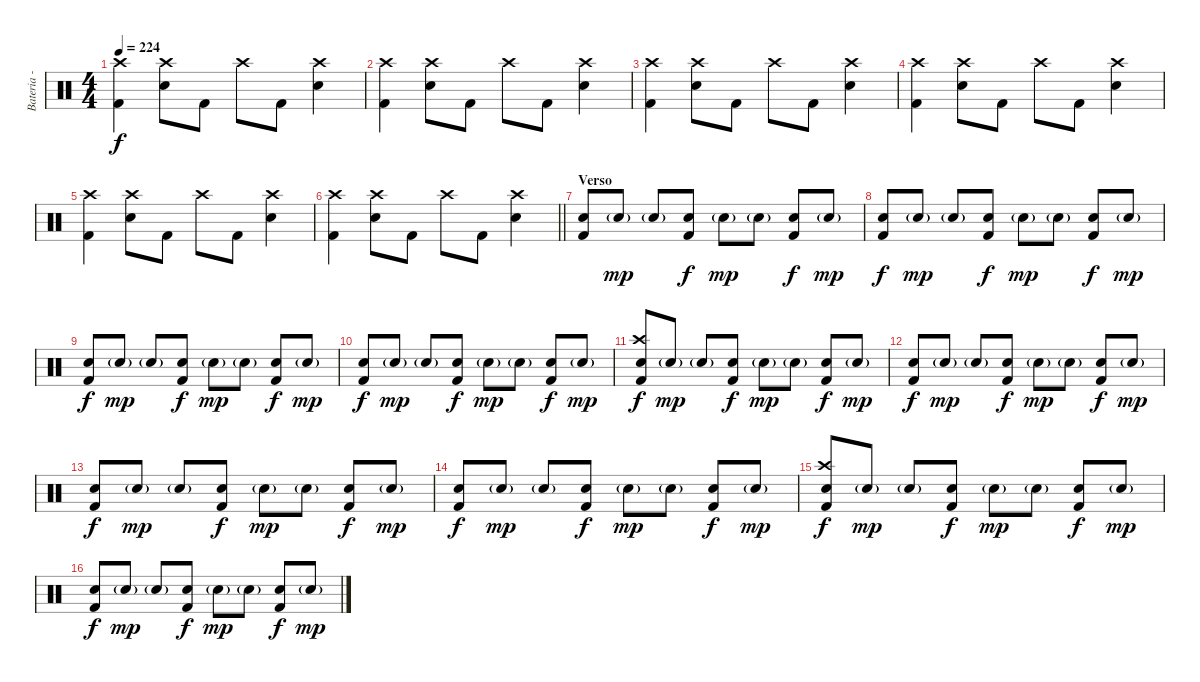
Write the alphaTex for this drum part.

\track ("Bateria - Larzon" "Bateria - ") {instrument percussion}
\staff {score}
\articulation defaults
\ts (4 4)
\tempo 224
\clef neutral
\ks c
("Kick (hit) 2" "Crash high (hit)").4{dy f} ("Electric Snare (hit)" "Crash high (hit)").8 "Kick (hit) 2".8 "Crash high (hit)".8 "Kick (hit) 2".8 ("Electric Snare (hit)" "Crash high (hit)").4 |
("Kick (hit) 2" "Crash high (hit)").4 ("Electric Snare (hit)" "Crash high (hit)").8 "Kick (hit) 2".8 "Crash high (hit)".8 "Kick (hit) 2".8 ("Electric Snare (hit)" "Crash high (hit)").4 |
("Kick (hit) 2" "Crash high (hit)").4 ("Electric Snare (hit)" "Crash high (hit)").8 "Kick (hit) 2".8 "Crash high (hit)".8 "Kick (hit) 2".8 ("Electric Snare (hit)" "Crash high (hit)").4 |
("Kick (hit) 2" "Crash high (hit)").4 ("Electric Snare (hit)" "Crash high (hit)").8 "Kick (hit) 2".8 "Crash high (hit)".8 "Kick (hit) 2".8 ("Electric Snare (hit)" "Crash high (hit)").4 |
("Kick (hit) 2" "Crash high (hit)").4 ("Electric Snare (hit)" "Crash high (hit)").8 "Kick (hit) 2".8 "Crash high (hit)".8 "Kick (hit) 2".8 ("Electric Snare (hit)" "Crash high (hit)").4 |
\barLineRight lightlight
("Kick (hit) 2" "Crash high (hit)").4 ("Electric Snare (hit)" "Crash high (hit)").8 "Kick (hit) 2".8 "Crash high (hit)".8 "Kick (hit) 2".8 ("Electric Snare (hit)" "Crash high (hit)").4 |
\section ("" "Verso")
("Electric Snare (hit)" "Kick (hit) 2").8 "Electric Snare (hit)"{g}.8{dy mp} "Electric Snare (hit)"{g}.8 ("Electric Snare (hit)" "Kick (hit) 2").8{dy f} "Electric Snare (hit)"{g}.8{dy mp} "Electric Snare (hit)"{g}.8 ("Electric Snare (hit)" "Kick (hit) 2").8{dy f} "Electric Snare (hit)"{g}.8{dy mp} |
("Electric Snare (hit)" "Kick (hit) 2").8{dy f} "Electric Snare (hit)"{g}.8{dy mp} "Electric Snare (hit)"{g}.8 ("Electric Snare (hit)" "Kick (hit) 2").8{dy f} "Electric Snare (hit)"{g}.8{dy mp} "Electric Snare (hit)"{g}.8 ("Electric Snare (hit)" "Kick (hit) 2").8{dy f} "Electric Snare (hit)"{g}.8{dy mp} |
("Electric Snare (hit)" "Kick (hit) 2").8{dy f} "Electric Snare (hit)"{g}.8{dy mp} "Electric Snare (hit)"{g}.8 ("Electric Snare (hit)" "Kick (hit) 2").8{dy f} "Electric Snare (hit)"{g}.8{dy mp} "Electric Snare (hit)"{g}.8 ("Electric Snare (hit)" "Kick (hit) 2").8{dy f} "Electric Snare (hit)"{g}.8{dy mp} |
("Electric Snare (hit)" "Kick (hit) 2").8{dy f} "Electric Snare (hit)"{g}.8{dy mp} "Electric Snare (hit)"{g}.8 ("Electric Snare (hit)" "Kick (hit) 2").8{dy f} "Electric Snare (hit)"{g}.8{dy mp} "Electric Snare (hit)"{g}.8 ("Electric Snare (hit)" "Kick (hit) 2").8{dy f} "Electric Snare (hit)"{g}.8{dy mp} |
("Electric Snare (hit)" "Kick (hit) 2" "Crash high (hit)").8{dy f} "Electric Snare (hit)"{g}.8{dy mp} "Electric Snare (hit)"{g}.8 ("Electric Snare (hit)" "Kick (hit) 2").8{dy f} "Electric Snare (hit)"{g}.8{dy mp} "Electric Snare (hit)"{g}.8 ("Electric Snare (hit)" "Kick (hit) 2").8{dy f} "Electric Snare (hit)"{g}.8{dy mp} |
("Electric Snare (hit)" "Kick (hit) 2").8{dy f} "Electric Snare (hit)"{g}.8{dy mp} "Electric Snare (hit)"{g}.8 ("Electric Snare (hit)" "Kick (hit) 2").8{dy f} "Electric Snare (hit)"{g}.8{dy mp} "Electric Snare (hit)"{g}.8 ("Electric Snare (hit)" "Kick (hit) 2").8{dy f} "Electric Snare (hit)"{g}.8{dy mp} |
("Electric Snare (hit)" "Kick (hit) 2").8{dy f} "Electric Snare (hit)"{g}.8{dy mp} "Electric Snare (hit)"{g}.8 ("Electric Snare (hit)" "Kick (hit) 2").8{dy f} "Electric Snare (hit)"{g}.8{dy mp} "Electric Snare (hit)"{g}.8 ("Electric Snare (hit)" "Kick (hit) 2").8{dy f} "Electric Snare (hit)"{g}.8{dy mp} |
("Electric Snare (hit)" "Kick (hit) 2").8{dy f} "Electric Snare (hit)"{g}.8{dy mp} "Electric Snare (hit)"{g}.8 ("Electric Snare (hit)" "Kick (hit) 2").8{dy f} "Electric Snare (hit)"{g}.8{dy mp} "Electric Snare (hit)"{g}.8 ("Electric Snare (hit)" "Kick (hit) 2").8{dy f} "Electric Snare (hit)"{g}.8{dy mp} |
("Electric Snare (hit)" "Kick (hit) 2" "Crash high (hit)").8{dy f} "Electric Snare (hit)"{g}.8{dy mp} "Electric Snare (hit)"{g}.8 ("Electric Snare (hit)" "Kick (hit) 2").8{dy f} "Electric Snare (hit)"{g}.8{dy mp} "Electric Snare (hit)"{g}.8 ("Electric Snare (hit)" "Kick (hit) 2").8{dy f} "Electric Snare (hit)"{g}.8{dy mp} |
("Electric Snare (hit)" "Kick (hit) 2").8{dy f} "Electric Snare (hit)"{g}.8{dy mp} "Electric Snare (hit)"{g}.8 ("Electric Snare (hit)" "Kick (hit) 2").8{dy f} "Electric Snare (hit)"{g}.8{dy mp} "Electric Snare (hit)"{g}.8 ("Electric Snare (hit)" "Kick (hit) 2").8{dy f} "Electric Snare (hit)"{g}.8{dy mp}
